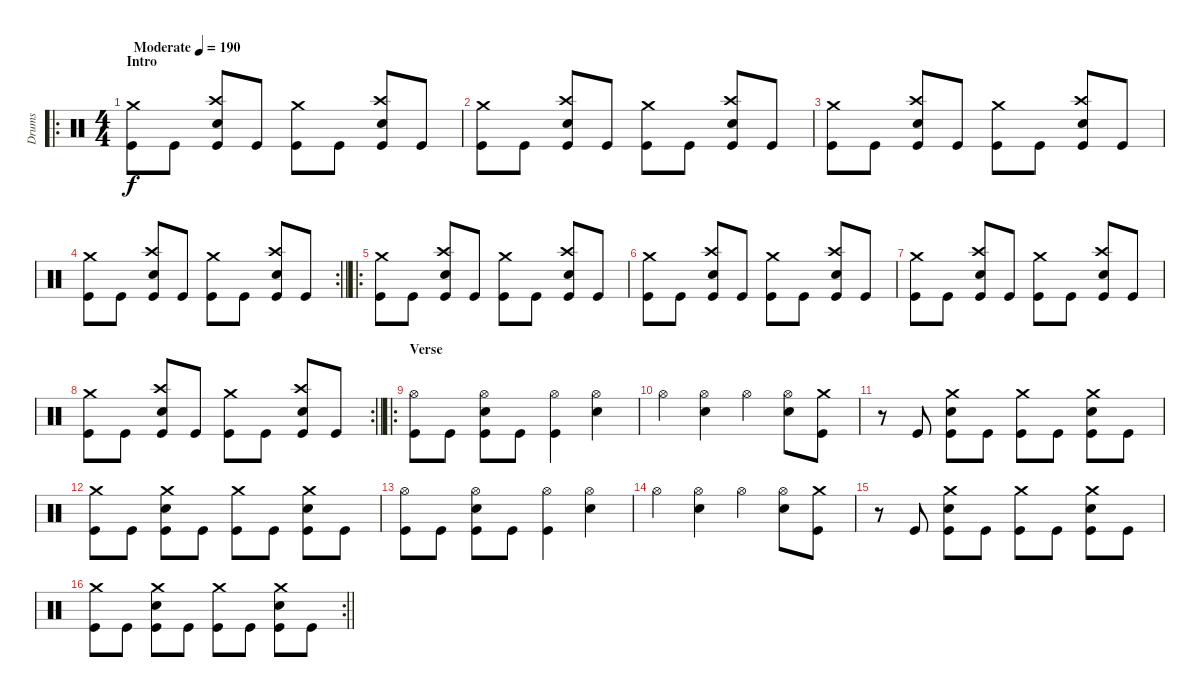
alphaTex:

\track ("Drums" "Drums") {instrument percussion}
\staff {score}
\articulation defaults
\ro
\ts (4 4)
\section ("" "Intro")
\tempo (190 "Moderate")
\clef neutral
\ks c
("Crash medium (hit)" "Kick (hit)").8{dy f} "Kick (hit)".8 ("Crash high (hit)" "Snare (hit) 2" "Kick (hit)").8 "Kick (hit)".8 ("Crash medium (hit)" "Kick (hit)").8 "Kick (hit)".8 ("Crash high (hit)" "Snare (hit) 2" "Kick (hit)").8 "Kick (hit)".8 |
("Crash medium (hit)" "Kick (hit)").8 "Kick (hit)".8 ("Crash high (hit)" "Snare (hit) 2" "Kick (hit)").8 "Kick (hit)".8 ("Crash medium (hit)" "Kick (hit)").8 "Kick (hit)".8 ("Crash high (hit)" "Snare (hit) 2" "Kick (hit)").8 "Kick (hit)".8 |
("Crash medium (hit)" "Kick (hit)").8 "Kick (hit)".8 ("Crash high (hit)" "Snare (hit) 2" "Kick (hit)").8 "Kick (hit)".8 ("Crash medium (hit)" "Kick (hit)").8 "Kick (hit)".8 ("Crash high (hit)" "Snare (hit) 2" "Kick (hit)").8 "Kick (hit)".8 |
\rc 2
\barLineRight lightlight
("Crash medium (hit)" "Kick (hit)").8 "Kick (hit)".8 ("Crash high (hit)" "Snare (hit) 2" "Kick (hit)").8 "Kick (hit)".8 ("Crash medium (hit)" "Kick (hit)").8 "Kick (hit)".8 ("Crash high (hit)" "Snare (hit) 2" "Kick (hit)").8 "Kick (hit)".8 |
\ro
\section ("" "")
("Crash medium (hit)" "Kick (hit)").8 "Kick (hit)".8 ("Crash high (hit)" "Snare (hit) 2" "Kick (hit)").8 "Kick (hit)".8 ("Crash medium (hit)" "Kick (hit)").8 "Kick (hit)".8 ("Crash high (hit)" "Snare (hit) 2" "Kick (hit)").8 "Kick (hit)".8 |
("Crash medium (hit)" "Kick (hit)").8 "Kick (hit)".8 ("Crash high (hit)" "Snare (hit) 2" "Kick (hit)").8 "Kick (hit)".8 ("Crash medium (hit)" "Kick (hit)").8 "Kick (hit)".8 ("Crash high (hit)" "Snare (hit) 2" "Kick (hit)").8 "Kick (hit)".8 |
("Crash medium (hit)" "Kick (hit)").8 "Kick (hit)".8 ("Crash high (hit)" "Snare (hit) 2" "Kick (hit)").8 "Kick (hit)".8 ("Crash medium (hit)" "Kick (hit)").8 "Kick (hit)".8 ("Crash high (hit)" "Snare (hit) 2" "Kick (hit)").8 "Kick (hit)".8 |
\rc 2
\barLineRight lightlight
("Crash medium (hit)" "Kick (hit)").8 "Kick (hit)".8 ("Crash high (hit)" "Snare (hit) 2" "Kick (hit)").8 "Kick (hit)".8 ("Crash medium (hit)" "Kick (hit)").8 "Kick (hit)".8 ("Crash high (hit)" "Snare (hit) 2" "Kick (hit)").8 "Kick (hit)".8 |
\ro
\section ("" "Verse")
("Hi-Hat (open)" "Kick (hit)").8 "Kick (hit)".8 ("Hi-Hat (open)" "Snare (hit) 2" "Kick (hit)").8 "Kick (hit)".8 ("Hi-Hat (open)" "Kick (hit)").4 ("Hi-Hat (open)" "Snare (hit) 2").4 |
"Hi-Hat (open)".4 ("Hi-Hat (open)" "Snare (hit) 2").4 "Hi-Hat (open)".4 ("Hi-Hat (open)" "Snare (hit) 2").8 ("Crash medium (hit)" "Kick (hit)").8 |
r.8 "Kick (hit)".8 ("Crash medium (hit)" "Snare (hit) 2" "Kick (hit)").8 "Kick (hit)".8 ("Crash medium (hit)" "Kick (hit)").8 "Kick (hit)".8 ("Crash medium (hit)" "Snare (hit) 2" "Kick (hit)").8 "Kick (hit)".8 |
("Crash medium (hit)" "Kick (hit)").8 "Kick (hit)".8 ("Crash medium (hit)" "Snare (hit) 2" "Kick (hit)").8 "Kick (hit)".8 ("Crash medium (hit)" "Kick (hit)").8 "Kick (hit)".8 ("Crash medium (hit)" "Snare (hit) 2" "Kick (hit)").8 "Kick (hit)".8 |
("Hi-Hat (open)" "Kick (hit)").8 "Kick (hit)".8 ("Hi-Hat (open)" "Snare (hit) 2" "Kick (hit)").8 "Kick (hit)".8 ("Hi-Hat (open)" "Kick (hit)").4 ("Hi-Hat (open)" "Snare (hit) 2").4 |
"Hi-Hat (open)".4 ("Hi-Hat (open)" "Snare (hit) 2").4 "Hi-Hat (open)".4 ("Hi-Hat (open)" "Snare (hit) 2").8 ("Crash medium (hit)" "Kick (hit)").8 |
r.8 "Kick (hit)".8 ("Crash medium (hit)" "Snare (hit) 2" "Kick (hit)").8 "Kick (hit)".8 ("Crash medium (hit)" "Kick (hit)").8 "Kick (hit)".8 ("Crash medium (hit)" "Snare (hit) 2" "Kick (hit)").8 "Kick (hit)".8 |
\rc 2
\barLineRight lightlight
("Crash medium (hit)" "Kick (hit)").8 "Kick (hit)".8 ("Crash medium (hit)" "Snare (hit) 2" "Kick (hit)").8 "Kick (hit)".8 ("Crash medium (hit)" "Kick (hit)").8 "Kick (hit)".8 ("Crash medium (hit)" "Snare (hit) 2" "Kick (hit)").8 "Kick (hit)".8
